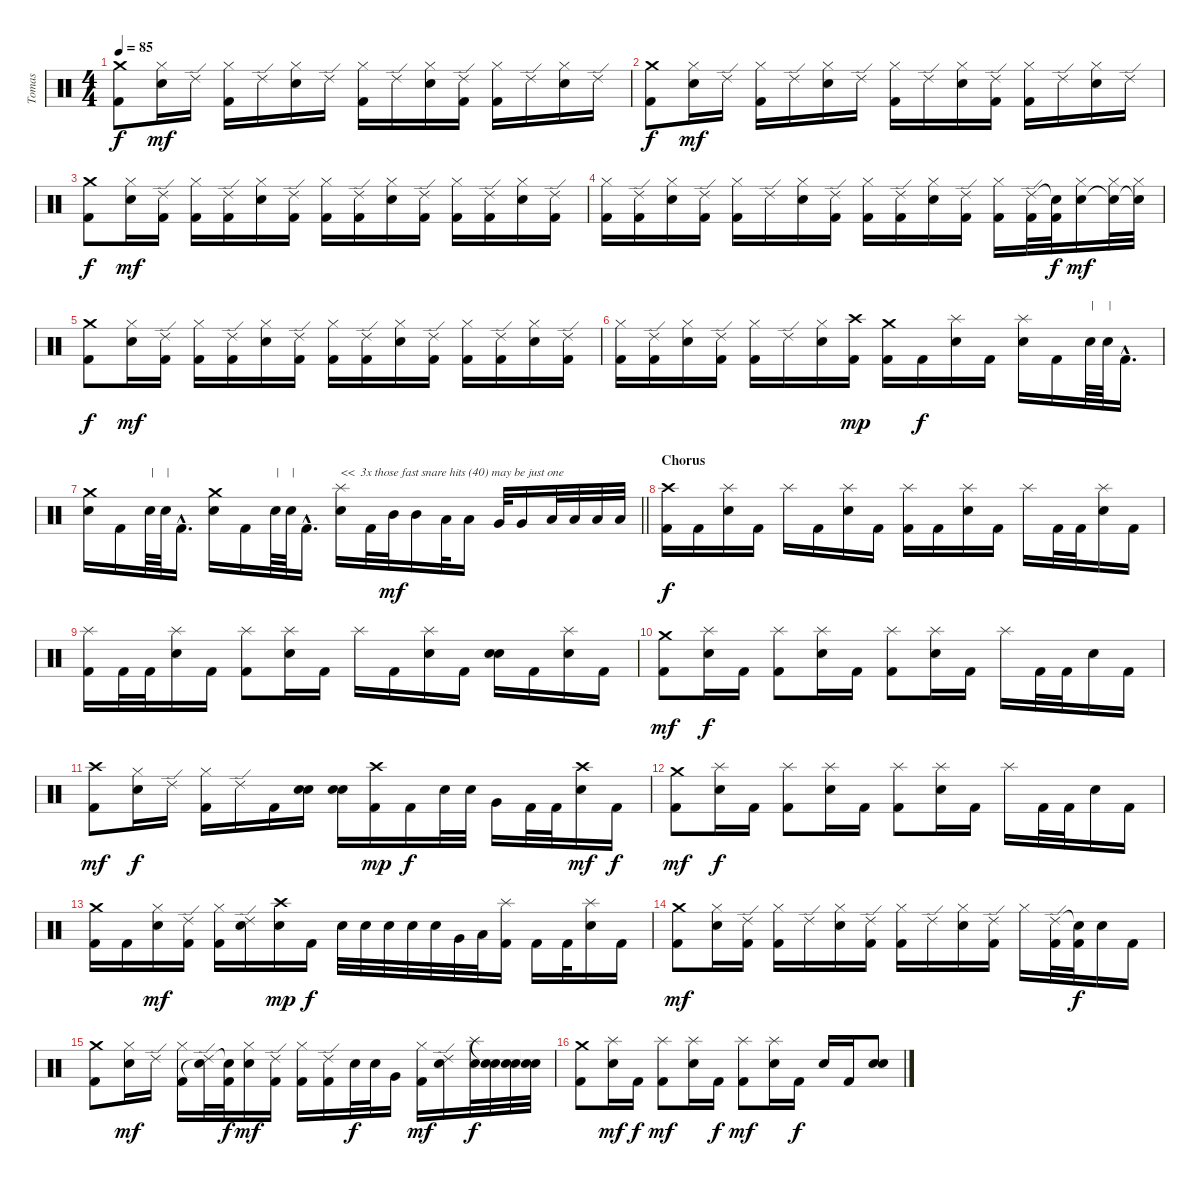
\track ("Tomas" "Tomas") {instrument percussion}
\staff {score}
\articulation defaults
\ts (4 4)
\tempo 85
\clef neutral
\ks c
("Kick (hit) 2" "Crash medium (hit)").8{dy f} ("Electric Snare (hit)" "Hi-Hat (closed)").16{dy mf} "Ride (edge) 2".16 ("Kick (hit) 2" "Hi-Hat (closed)").16 "Ride (edge) 2".16 ("Electric Snare (hit)" "Hi-Hat (closed)").16 "Ride (edge) 2".16 ("Kick (hit) 2" "Hi-Hat (closed)").16 "Ride (edge) 2".16 ("Electric Snare (hit)" "Hi-Hat (closed)").16 ("Kick (hit) 2" "Ride (edge) 2").16 ("Kick (hit) 2" "Hi-Hat (closed)").16 "Ride (edge) 2".16 ("Electric Snare (hit)" "Hi-Hat (closed)").16 "Ride (edge) 2".16 |
("Kick (hit) 2" "Crash medium (hit)").8{dy f} ("Electric Snare (hit)" "Hi-Hat (closed)").16{dy mf} "Ride (edge) 2".16 ("Kick (hit) 2" "Hi-Hat (closed)").16 "Ride (edge) 2".16 ("Electric Snare (hit)" "Hi-Hat (closed)").16 "Ride (edge) 2".16 ("Kick (hit) 2" "Hi-Hat (closed)").16 "Ride (edge) 2".16 ("Electric Snare (hit)" "Hi-Hat (closed)").16 ("Kick (hit) 2" "Ride (edge) 2").16 ("Kick (hit) 2" "Hi-Hat (closed)").16 "Ride (edge) 2".16 ("Electric Snare (hit)" "Hi-Hat (closed)").16 "Ride (edge) 2".16 |
("Kick (hit) 2" "Crash medium (hit)").8{dy f} ("Electric Snare (hit)" "Hi-Hat (closed)").16{dy mf} ("Kick (hit) 2" "Ride (edge) 2").16 ("Kick (hit) 2" "Hi-Hat (closed)").16 ("Kick (hit) 2" "Ride (edge) 2").16 ("Electric Snare (hit)" "Hi-Hat (closed)").16 ("Kick (hit) 2" "Ride (edge) 2").16 ("Kick (hit) 2" "Hi-Hat (closed)").16 ("Kick (hit) 2" "Ride (edge) 2").16 ("Electric Snare (hit)" "Hi-Hat (closed)").16 ("Kick (hit) 2" "Ride (edge) 2").16 ("Kick (hit) 2" "Hi-Hat (closed)").16 ("Kick (hit) 2" "Ride (edge) 2").16 ("Electric Snare (hit)" "Hi-Hat (closed)").16 ("Kick (hit) 2" "Ride (edge) 2").16 |
("Kick (hit) 2" "Hi-Hat (closed)").16 ("Kick (hit) 2" "Ride (edge) 2").16 ("Electric Snare (hit)" "Hi-Hat (closed)").16 ("Kick (hit) 2" "Ride (edge) 2").16 ("Kick (hit) 2" "Hi-Hat (closed)").16 "Ride (edge) 2".16 ("Electric Snare (hit)" "Hi-Hat (closed)").16 ("Kick (hit) 2" "Ride (edge) 2").16 ("Kick (hit) 2" "Hi-Hat (closed)").16 ("Kick (hit) 2" "Ride (edge) 2").16 ("Electric Snare (hit)" "Hi-Hat (closed)").16 ("Kick (hit) 2" "Ride (edge) 2").16 ("Kick (hit) 2" "Hi-Hat (closed)").16 ("Kick (hit) 2" "Ride (edge) 2").32 ("Kick (hit) 2" "Snare (hit)"{t}).32{dy f} ("Electric Snare (hit)" "Hi-Hat (closed)").16{dy mf} ("Snare (hit)"{t} "Hi-Hat (closed)").32 ("Snare (hit)"{t} "Hi-Hat (closed)").32 |
("Kick (hit) 2" "Crash medium (hit)").8{dy f} ("Electric Snare (hit)" "Hi-Hat (closed)").16{dy mf} ("Kick (hit) 2" "Ride (edge) 2").16 ("Kick (hit) 2" "Hi-Hat (closed)").16 ("Kick (hit) 2" "Ride (edge) 2").16 ("Electric Snare (hit)" "Hi-Hat (closed)").16 ("Kick (hit) 2" "Ride (edge) 2").16 ("Kick (hit) 2" "Hi-Hat (closed)").16 ("Kick (hit) 2" "Ride (edge) 2").16 ("Electric Snare (hit)" "Hi-Hat (closed)").16 ("Kick (hit) 2" "Ride (edge) 2").16 ("Kick (hit) 2" "Hi-Hat (closed)").16 ("Kick (hit) 2" "Ride (edge) 2").16 ("Electric Snare (hit)" "Hi-Hat (closed)").16 ("Kick (hit) 2" "Ride (edge) 2").16 |
("Kick (hit) 2" "Hi-Hat (closed)").16 ("Kick (hit) 2" "Ride (edge) 2").16 ("Electric Snare (hit)" "Hi-Hat (closed)").16 ("Kick (hit) 2" "Ride (edge) 2").16 ("Kick (hit) 2" "Hi-Hat (closed)").16 "Ride (edge) 2".16 ("Electric Snare (hit)" "Hi-Hat (closed)").16 ("Kick (hit) 2" "Crash high (hit)").16{dy mp} ("Kick (hit) 2" "Crash medium (hit)").16 "Kick (hit) 2".16{dy f} ("Electric Snare (hit)" "Splash (hit)").16 "Kick (hit) 2".16 ("Electric Snare (hit)" "Splash (hit)").16 "Kick (hit) 2".16 "Electric Snare (hit)".64{txt "|"} "Electric Snare (hit)".64{txt "|"} "Kick (hit) 2"{hac}.16{d} |
\barLineRight lightlight
("Electric Snare (hit)" "Crash medium (hit)").16 "Kick (hit) 2".16 "Electric Snare (hit)".64{txt "|"} "Electric Snare (hit)".64{txt "|"} "Kick (hit) 2"{hac}.16{d} ("Electric Snare (hit)" "Crash medium (hit)").16 "Kick (hit) 2".16 "Electric Snare (hit)".64{txt "|"} "Electric Snare (hit)".64{txt "|"} "Kick (hit) 2"{hac}.16{d} ("Electric Snare (hit)" "Splash (hit)").16{txt "<<  3x those fast snare hits (40) may be just one"} "Kick (hit) 2".32 "Mid Tom (hit)".32{dy mf} "Mid Tom (hit)".16 "Low Tom (hit)".32 "Low Tom (hit)".16 "Very Low Tom (hit)".32 "Very Low Tom (hit)".16 "Low Floor Tom (hit)".32 "Low Floor Tom (hit)".32 "Low Floor Tom (hit)".32 "Low Floor Tom (hit)".32 |
\section ("" "Chorus")
("Kick (hit) 2" "Crash high (hit)").16{dy f} "Kick (hit) 2".16 ("Electric Snare (hit)" "Splash (hit)").16 "Kick (hit) 2".16 "Splash (hit)".16 "Kick (hit) 2".16 ("Electric Snare (hit)" "Splash (hit)").16 "Kick (hit) 2".16 ("Kick (hit) 2" "Splash (hit)").16 "Kick (hit) 2".16 ("Electric Snare (hit)" "Splash (hit)").16 "Kick (hit) 2".16 "Splash (hit)".16 "Kick (hit) 2".32 "Kick (hit) 2".32 ("Electric Snare (hit)" "Splash (hit)").16 "Kick (hit) 2".16 |
("Kick (hit) 2" "Splash (hit)").16 "Kick (hit) 2".32 "Kick (hit) 2".32 ("Electric Snare (hit)" "Splash (hit)").16 "Kick (hit) 2".16 ("Kick (hit) 2" "Splash (hit)").8 ("Electric Snare (hit)" "Splash (hit)").16 "Kick (hit) 2".16 "Splash (hit)".16 "Kick (hit) 2".16 ("Electric Snare (hit)" "Splash (hit)").16 "Kick (hit) 2".16 ("Electric Snare (hit)" "Snare (hit) 2").16 "Kick (hit) 2".16 ("Electric Snare (hit)" "Splash (hit)").16 "Kick (hit) 2".16 |
("Kick (hit) 2" "Crash medium (hit)").8{dy mf} ("Electric Snare (hit)" "Splash (hit)").16{dy f} "Kick (hit) 2".16 ("Kick (hit) 2" "Splash (hit)").8 ("Electric Snare (hit)" "Splash (hit)").16 "Kick (hit) 2".16 ("Kick (hit) 2" "Splash (hit)").8 ("Electric Snare (hit)" "Splash (hit)").16 "Kick (hit) 2".16 "Splash (hit)".16 "Kick (hit) 2".32 "Kick (hit) 2".32 "Electric Snare (hit)".16 "Kick (hit) 2".16 |
("Kick (hit) 2" "Crash high (hit)").8{dy mf} ("Electric Snare (hit)" "Hi-Hat (closed)").16{dy f} "Ride (edge) 2".16 ("Kick (hit) 2" "Hi-Hat (closed)").16 "Ride (edge) 2".16 "Kick (hit) 2".16 ("Electric Snare (hit)" "Snare (hit) 2").16 ("Electric Snare (hit)" "Snare (hit) 2").16 ("Kick (hit) 2" "Crash high (hit)").16{dy mp} "Kick (hit) 2".16{dy f} "Electric Snare (hit)".32 "Electric Snare (hit)".32 "Very Low Tom (hit)".16 "Kick (hit) 2".32 "Kick (hit) 2".32 ("Electric Snare (hit)" "Crash high (hit)").16{dy mf} "Kick (hit) 2".16{dy f} |
("Kick (hit) 2" "Crash medium (hit)").8{dy mf} ("Electric Snare (hit)" "Splash (hit)").16{dy f} "Kick (hit) 2".16 ("Kick (hit) 2" "Splash (hit)").8 ("Electric Snare (hit)" "Splash (hit)").16 "Kick (hit) 2".16 ("Kick (hit) 2" "Splash (hit)").8 ("Electric Snare (hit)" "Splash (hit)").16 "Kick (hit) 2".16 "Splash (hit)".16 "Kick (hit) 2".32 "Kick (hit) 2".32 "Electric Snare (hit)".16 "Kick (hit) 2".16 |
("Kick (hit) 2" "Crash medium (hit)").16 "Kick (hit) 2".16 ("Electric Snare (hit)" "Hi-Hat (closed)").16{dy mf} ("Kick (hit) 2" "Ride (edge) 2").16 ("Kick (hit) 2" "Hi-Hat (closed)").16 ("Electric Snare (hit)" "Ride (edge) 2").16 ("Electric Snare (hit)" "Crash high (hit)").16{dy mp} "Kick (hit) 2".16{dy f} "Electric Snare (hit)".32 "Electric Snare (hit)".32 "Electric Snare (hit)".32 "Electric Snare (hit)".32 "Electric Snare (hit)".32 "Very Low Tom (hit)".32 "Low Floor Tom (hit)".32 ("Kick (hit) 2" "Splash (hit)").16 "Kick (hit) 2".16 "Kick (hit) 2".32 ("Electric Snare (hit)" "Splash (hit)").16 "Kick (hit) 2".16 |
("Kick (hit) 2" "Crash medium (hit)").8{dy mf} ("Electric Snare (hit)" "Hi-Hat (closed)").16 ("Kick (hit) 2" "Ride (edge) 2").16 ("Kick (hit) 2" "Hi-Hat (closed)").16 "Ride (edge) 2".16 ("Electric Snare (hit)" "Hi-Hat (closed)").16 ("Kick (hit) 2" "Ride (edge) 2").16 ("Kick (hit) 2" "Hi-Hat (closed)").16 "Ride (edge) 2".16 ("Electric Snare (hit)" "Hi-Hat (closed)").16 ("Kick (hit) 2" "Ride (edge) 2").16 "Hi-Hat (closed)".16 ("Kick (hit) 2" "Ride (edge) 2").32 ("Kick (hit) 2" "Snare (hit)"{t}).32{dy f} "Electric Snare (hit)".16 "Kick (hit) 2".16 |
("Kick (hit) 2" "Crash medium (hit)").8 ("Electric Snare (hit)" "Hi-Hat (closed)").16{dy mf} "Ride (edge) 2".16 ("Kick (hit) 2" "Hi-Hat (closed)").16 ("Snare (hit)"{t} "Ride (edge) 2").32 ("Kick (hit) 2" "Snare (hit)"{t}).32{dy f} ("Electric Snare (hit)" "Hi-Hat (closed)").16{dy mf} ("Kick (hit) 2" "Ride (edge) 2").16 ("Kick (hit) 2" "Hi-Hat (closed)").16 ("Kick (hit) 2" "Ride (edge) 2").16 "Electric Snare (hit)".32{dy f} "Electric Snare (hit)".32 "Very Low Tom (hit)".16 ("Kick (hit) 2" "Hi-Hat (closed)").16{dy mf} ("Electric Snare (hit)" "Ride (edge) 2").16 ("Electric Snare (hit)" "Splash (hit)").32{dy f} ("Electric Snare (hit)" "Snare (hit)"{t}).32 ("Electric Snare (hit)" "Snare (hit)"{t}).32 ("Electric Snare (hit)" "Snare (hit)"{t}).32 |
("Kick (hit) 2" "Crash medium (hit)").8 ("Electric Snare (hit)" "Splash (hit)").16{dy mf} "Kick (hit) 2".16{dy f} ("Kick (hit) 2" "Splash (hit)").8{dy mf} ("Electric Snare (hit)" "Splash (hit)").16 "Kick (hit) 2".16{dy f} ("Kick (hit) 2" "Splash (hit)").8{dy mf} ("Electric Snare (hit)" "Splash (hit)").16 "Kick (hit) 2".16{dy f} "Electric Snare (hit)".16 "Kick (hit) 2".16 ("Electric Snare (hit)" "Snare (hit) 2").8
